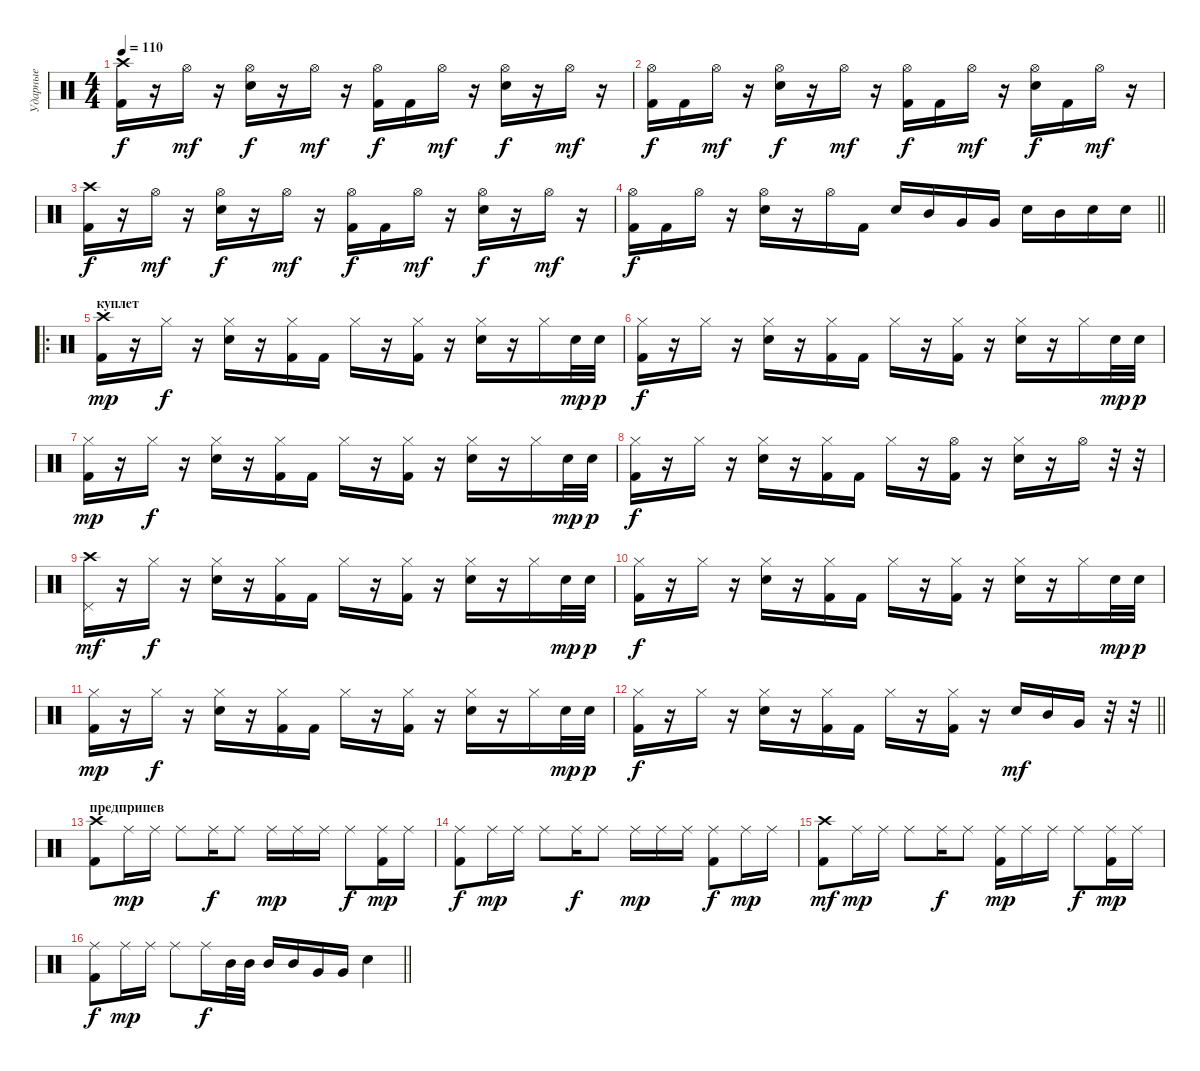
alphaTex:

\track ("Ударные" "Ударные") {instrument percussion}
\staff {score}
\articulation defaults
\ts (4 4)
\tempo 110
\clef neutral
\ks c
("Crash high (hit)" "Kick (hit) 2").16{dy f} r.16 "Hi-Hat (open)".16{dy mf} r.16 ("Hi-Hat (open)" "Electric Snare (hit)").16{dy f} r.16 "Hi-Hat (open)".16{dy mf} r.16 ("Hi-Hat (open)" "Kick (hit) 2").16{dy f} "Kick (hit) 2".16 "Hi-Hat (open)".16{dy mf} r.16 ("Hi-Hat (open)" "Electric Snare (hit)").16{dy f} r.16 "Hi-Hat (open)".16{dy mf} r.16 |
("Hi-Hat (open)" "Kick (hit) 2").16{dy f} "Kick (hit) 2".16 "Hi-Hat (open)".16{dy mf} r.16 ("Hi-Hat (open)" "Electric Snare (hit)").16{dy f} r.16 "Hi-Hat (open)".16{dy mf} r.16 ("Hi-Hat (open)" "Kick (hit) 2").16{dy f} "Kick (hit) 2".16 "Hi-Hat (open)".16{dy mf} r.16 ("Hi-Hat (open)" "Electric Snare (hit)").16{dy f} "Kick (hit) 2".16 "Hi-Hat (open)".16{dy mf} r.16 |
("Crash high (hit)" "Kick (hit) 2").16{dy f} r.16 "Hi-Hat (open)".16{dy mf} r.16 ("Hi-Hat (open)" "Electric Snare (hit)").16{dy f} r.16 "Hi-Hat (open)".16{dy mf} r.16 ("Hi-Hat (open)" "Kick (hit) 2").16{dy f} "Kick (hit) 2".16 "Hi-Hat (open)".16{dy mf} r.16 ("Hi-Hat (open)" "Electric Snare (hit)").16{dy f} r.16 "Hi-Hat (open)".16{dy mf} r.16 |
\barLineRight lightlight
("Hi-Hat (open)" "Kick (hit) 2").16{dy f} "Kick (hit) 2".16 "Hi-Hat (open)".16 r.16 ("Hi-Hat (open)" "Electric Snare (hit)").16 r.16 "Hi-Hat (open)".16 "Kick (hit) 2".16 "Electric Snare (hit)".16 "Mid Tom (hit)".16 "Very Low Tom (hit)".16 "Very Low Tom (hit)".16 "Electric Snare (hit)".16 "Mid Tom (hit)".16 "Electric Snare (hit)".16 "Electric Snare (hit)".16 |
\ro
\section ("" "куплет")
("Crash high (hit)" "Kick (hit) 2").16{dy mp} r.16 "Hi-Hat (closed)".16{dy f} r.16 ("Hi-Hat (closed)" "Electric Snare (hit)").16 r.16 ("Hi-Hat (closed)" "Kick (hit) 2").16 "Kick (hit) 2".16 "Hi-Hat (closed)".16 r.16 ("Hi-Hat (closed)" "Kick (hit) 2").16 r.16 ("Hi-Hat (closed)" "Electric Snare (hit)").16 r.16 "Hi-Hat (closed)".16 "Electric Snare (hit)".32{dy mp} "Electric Snare (hit)".32{dy p} |
("Hi-Hat (closed)" "Kick (hit) 2").16{dy f} r.16 "Hi-Hat (closed)".16 r.16 ("Hi-Hat (closed)" "Electric Snare (hit)").16 r.16 ("Hi-Hat (closed)" "Kick (hit) 2").16 "Kick (hit) 2".16 "Hi-Hat (closed)".16 r.16 ("Hi-Hat (closed)" "Kick (hit) 2").16 r.16 ("Hi-Hat (closed)" "Electric Snare (hit)").16 r.16 "Hi-Hat (closed)".16 "Electric Snare (hit)".32{dy mp} "Electric Snare (hit)".32{dy p} |
("Hi-Hat (closed)" "Kick (hit) 2").16{dy mp} r.16 "Hi-Hat (closed)".16{dy f} r.16 ("Hi-Hat (closed)" "Electric Snare (hit)").16 r.16 ("Hi-Hat (closed)" "Kick (hit) 2").16 "Kick (hit) 2".16 "Hi-Hat (closed)".16 r.16 ("Hi-Hat (closed)" "Kick (hit) 2").16 r.16 ("Hi-Hat (closed)" "Electric Snare (hit)").16 r.16 "Hi-Hat (closed)".16 "Electric Snare (hit)".32{dy mp} "Electric Snare (hit)".32{dy p} |
("Hi-Hat (closed)" "Kick (hit) 2").16{dy f} r.16 "Hi-Hat (closed)".16 r.16 ("Hi-Hat (closed)" "Electric Snare (hit)").16 r.16 ("Hi-Hat (closed)" "Kick (hit) 2").16 "Kick (hit) 2".16 "Hi-Hat (closed)".16 r.16 ("Hi-Hat (open)" "Kick (hit) 2").16 r.16 ("Hi-Hat (closed)" "Electric Snare (hit)").16 r.16 "Hi-Hat (open)".16 r.32 r.32 |
("Crash high (hit)" "Pedal Hi-Hat (hit)").16{dy mf} r.16 "Hi-Hat (closed)".16{dy f} r.16 ("Hi-Hat (closed)" "Electric Snare (hit)").16 r.16 ("Hi-Hat (closed)" "Kick (hit) 2").16 "Kick (hit) 2".16 "Hi-Hat (closed)".16 r.16 ("Hi-Hat (closed)" "Kick (hit) 2").16 r.16 ("Hi-Hat (closed)" "Electric Snare (hit)").16 r.16 "Hi-Hat (closed)".16 "Electric Snare (hit)".32{dy mp} "Electric Snare (hit)".32{dy p} |
("Hi-Hat (closed)" "Kick (hit) 2").16{dy f} r.16 "Hi-Hat (closed)".16 r.16 ("Hi-Hat (closed)" "Electric Snare (hit)").16 r.16 ("Hi-Hat (closed)" "Kick (hit) 2").16 "Kick (hit) 2".16 "Hi-Hat (closed)".16 r.16 ("Hi-Hat (closed)" "Kick (hit) 2").16 r.16 ("Hi-Hat (closed)" "Electric Snare (hit)").16 r.16 "Hi-Hat (closed)".16 "Electric Snare (hit)".32{dy mp} "Electric Snare (hit)".32{dy p} |
("Hi-Hat (closed)" "Kick (hit) 2").16{dy mp} r.16 "Hi-Hat (closed)".16{dy f} r.16 ("Hi-Hat (closed)" "Electric Snare (hit)").16 r.16 ("Hi-Hat (closed)" "Kick (hit) 2").16 "Kick (hit) 2".16 "Hi-Hat (closed)".16 r.16 ("Hi-Hat (closed)" "Kick (hit) 2").16 r.16 ("Hi-Hat (closed)" "Electric Snare (hit)").16 r.16 "Hi-Hat (closed)".16 "Electric Snare (hit)".32{dy mp} "Electric Snare (hit)".32{dy p} |
\barLineRight lightlight
("Hi-Hat (closed)" "Kick (hit) 2").16{dy f} r.16 "Hi-Hat (closed)".16 r.16 ("Hi-Hat (closed)" "Electric Snare (hit)").16 r.16 ("Hi-Hat (closed)" "Kick (hit) 2").16 "Kick (hit) 2".16 "Hi-Hat (closed)".16 r.16 ("Hi-Hat (closed)" "Kick (hit) 2").16 r.16 "Electric Snare (hit)".16{dy mf} "Mid Tom (hit)".16 "Very Low Tom (hit)".16 r.32 r.32 |
\section ("" "предприпев")
("Crash high (hit)" "Kick (hit) 2").8 "Ride (middle)".16{dy mp} "Ride (middle)".16 "Ride (middle)".8 "Ride (middle)".16{dy f} "Ride (middle)".8 "Ride (middle)".16{dy mp} "Ride (middle)".16 "Ride (middle)".16 "Ride (middle)".8{dy f} ("Ride (middle)" "Kick (hit) 2").16{dy mp} "Ride (middle)".16 |
("Ride (middle)" "Kick (hit) 2").8{dy f} "Ride (middle)".16{dy mp} "Ride (middle)".16 "Ride (middle)".8 "Ride (middle)".16{dy f} "Ride (middle)".8 "Ride (middle)".16{dy mp} "Ride (middle)".16 "Ride (middle)".16 ("Ride (middle)" "Kick (hit) 2").8{dy f} "Ride (middle)".16{dy mp} "Ride (middle)".16 |
("Crash high (hit)" "Kick (hit) 2").8{dy mf} "Ride (middle)".16{dy mp} "Ride (middle)".16 "Ride (middle)".8 "Ride (middle)".16{dy f} "Ride (middle)".8 ("Ride (middle)" "Kick (hit) 2").16{dy mp} "Ride (middle)".16 "Ride (middle)".16 "Ride (middle)".8{dy f} ("Ride (middle)" "Kick (hit) 2").16{dy mp} "Ride (middle)".16 |
\barLineRight lightlight
("Ride (middle)" "Kick (hit) 2").8{dy f} "Ride (middle)".16{dy mp} "Ride (middle)".16 "Ride (middle)".8 "Ride (middle)".16{dy f} "Mid Tom (hit)".32 "Mid Tom (hit)".32 "Mid Tom (hit)".16 "Mid Tom (hit)".16 "Very Low Tom (hit)".16 "Very Low Tom (hit)".16 "Electric Snare (hit)".4
